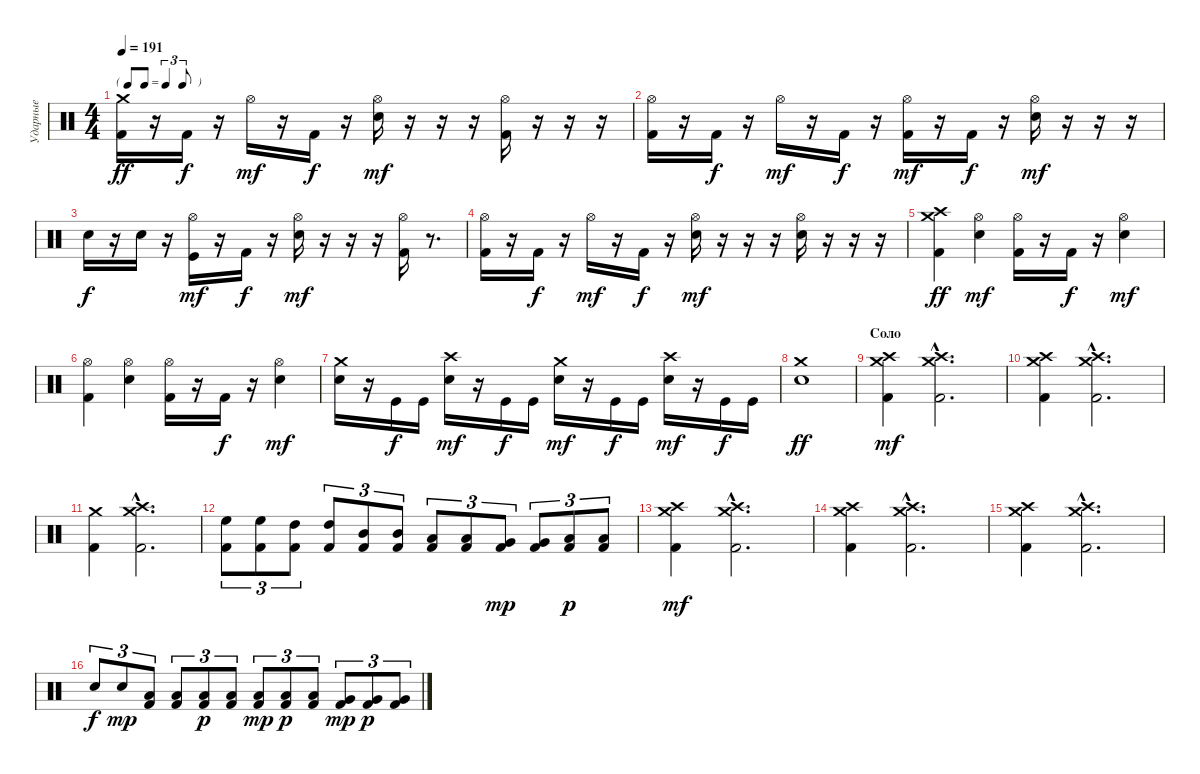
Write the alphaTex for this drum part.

\track ("Ударные" "Ударные") {instrument percussion}
\staff {score}
\articulation defaults
\ts (4 4)
\tf triplet8th
\tempo 191
\clef neutral
\ks c
("Crash medium (hit)" "Kick (hit) 2").16{dy ff} r.16 "Kick (hit) 2".16{dy f} r.16 "Hi-Hat (open)".16{dy mf} r.16 "Kick (hit) 2".16{dy f} r.16 ("Snare (hit) 2" "Hi-Hat (open)").16{dy mf} r.16 r.16 r.16 ("Kick (hit) 2" "Hi-Hat (open)").16 r.16 r.16 r.16 |
("Kick (hit) 2" "Hi-Hat (open)").16 r.16 "Kick (hit) 2".16{dy f} r.16 "Hi-Hat (open)".16{dy mf} r.16 "Kick (hit) 2".16{dy f} r.16 ("Kick (hit) 2" "Hi-Hat (open)").16{dy mf} r.16 "Kick (hit) 2".16{dy f} r.16 ("Snare (hit) 2" "Hi-Hat (open)").16{dy mf} r.16 r.16 r.16 |
"Snare (hit) 2".16{dy f} r.16 "Snare (hit) 2".16 r.16 ("Kick (hit)" "Hi-Hat (open)").16{dy mf} r.16 "Kick (hit) 2".16{dy f} r.16 ("Snare (hit) 2" "Hi-Hat (open)").16{dy mf} r.16 r.16 r.16 ("Kick (hit) 2" "Hi-Hat (open)").16 r.8{d} |
("Kick (hit) 2" "Hi-Hat (open)").16 r.16 "Kick (hit) 2".16{dy f} r.16 "Hi-Hat (open)".16{dy mf} r.16 "Kick (hit) 2".16{dy f} r.16 ("Snare (hit) 2" "Hi-Hat (open)").16{dy mf} r.16 r.16 r.16 ("Snare (hit) 2" "Hi-Hat (open)").16 r.16 r.16 r.16 |
("Crash medium (hit)" "Kick (hit) 2" "Crash high (hit)").4{dy ff} ("Snare (hit) 2" "Hi-Hat (open)").4{dy mf} ("Kick (hit) 2" "Hi-Hat (open)").16 r.16 "Kick (hit) 2".16{dy f} r.16 ("Snare (hit) 2" "Hi-Hat (open)").4{dy mf} |
("Kick (hit) 2" "Hi-Hat (open)").4 ("Snare (hit) 2" "Hi-Hat (open)").4 ("Kick (hit) 2" "Hi-Hat (open)").16 r.16 "Kick (hit) 2".16{dy f} r.16 ("Snare (hit) 2" "Hi-Hat (open)").4{dy mf} |
("Crash medium (hit)" "Snare (hit) 2").16 r.16 "Kick (hit)".16{dy f} "Kick (hit)".16 ("Crash high (hit)" "Snare (hit) 2").16{dy mf} r.16 "Kick (hit)".16{dy f} "Kick (hit)".16 ("Crash medium (hit)" "Snare (hit) 2").16{dy mf} r.16 "Kick (hit)".16{dy f} "Kick (hit)".16 ("Crash high (hit)" "Snare (hit) 2").16{dy mf} r.16 "Kick (hit)".16{dy f} "Kick (hit)".16 |
("Crash medium (hit)" "Snare (hit) 2").1{dy ff} |
\section ("" "Соло")
("Crash medium (hit)" "Kick (hit) 2" "Crash high (hit)").4{dy mf} ("Crash medium (hit)"{hac} "Kick (hit) 2"{hac} "Crash high (hit)"{hac}).2{d} |
("Crash medium (hit)" "Kick (hit) 2" "Crash high (hit)").4 ("Crash medium (hit)"{hac} "Kick (hit) 2"{hac} "Crash high (hit)"{hac}).2{d} |
("Crash medium (hit)" "Kick (hit) 2").4 ("Crash medium (hit)"{hac} "Kick (hit) 2"{hac} "Crash high (hit)"{hac}).2{d} |
("High Floor Tom (hit)" "Kick (hit) 2").8{tu (3 2)} ("High Floor Tom (hit)" "Kick (hit) 2").8{tu (3 2)} ("High Tom (hit)" "Kick (hit) 2").8{tu (3 2)} ("High Tom (hit)" "Kick (hit) 2").8{tu (3 2)} ("Mid Tom (hit)" "Kick (hit) 2").8{tu (3 2)} ("Mid Tom (hit)" "Kick (hit) 2").8{tu (3 2)} ("Low Tom (hit)" "Kick (hit) 2").8{tu (3 2)} ("Low Tom (hit)" "Kick (hit) 2").8{tu (3 2)} ("Very Low Tom (hit)" "Kick (hit) 2").8{tu (3 2) dy mp} ("Very Low Tom (hit)" "Kick (hit) 2").8{tu (3 2)} ("Low Floor Tom (hit)" "Kick (hit) 2").8{tu (3 2) dy p} ("Low Floor Tom (hit)" "Kick (hit) 2").8{tu (3 2)} |
("Crash medium (hit)" "Kick (hit) 2" "Crash high (hit)").4{dy mf} ("Crash medium (hit)"{hac} "Kick (hit) 2"{hac} "Crash high (hit)"{hac}).2{d} |
("Crash medium (hit)" "Kick (hit) 2" "Crash high (hit)").4 ("Crash medium (hit)"{hac} "Kick (hit) 2"{hac} "Crash high (hit)"{hac}).2{d} |
("Crash medium (hit)" "Kick (hit) 2" "Crash high (hit)").4 ("Crash medium (hit)"{hac} "Kick (hit) 2"{hac} "Crash high (hit)"{hac}).2{d} |
"Snare (hit) 2".8{tu (3 2) dy f} "Snare (hit) 2".8{tu (3 2) dy mp} ("Low Tom (hit)" "Kick (hit) 2").8{tu (3 2)} ("Low Tom (hit)" "Kick (hit) 2").8{tu (3 2)} ("Low Tom (hit)" "Kick (hit) 2").8{tu (3 2) dy p} ("Low Tom (hit)" "Kick (hit) 2").8{tu (3 2)} ("Low Tom (hit)" "Kick (hit) 2").8{tu (3 2) dy mp} ("Low Tom (hit)" "Kick (hit) 2").8{tu (3 2) dy p} ("Low Tom (hit)" "Kick (hit) 2").8{tu (3 2)} ("Very Low Tom (hit)" "Kick (hit) 2").8{tu (3 2) dy mp} ("Very Low Tom (hit)" "Kick (hit) 2").8{tu (3 2) dy p} ("Very Low Tom (hit)" "Kick (hit) 2").8{tu (3 2)}
